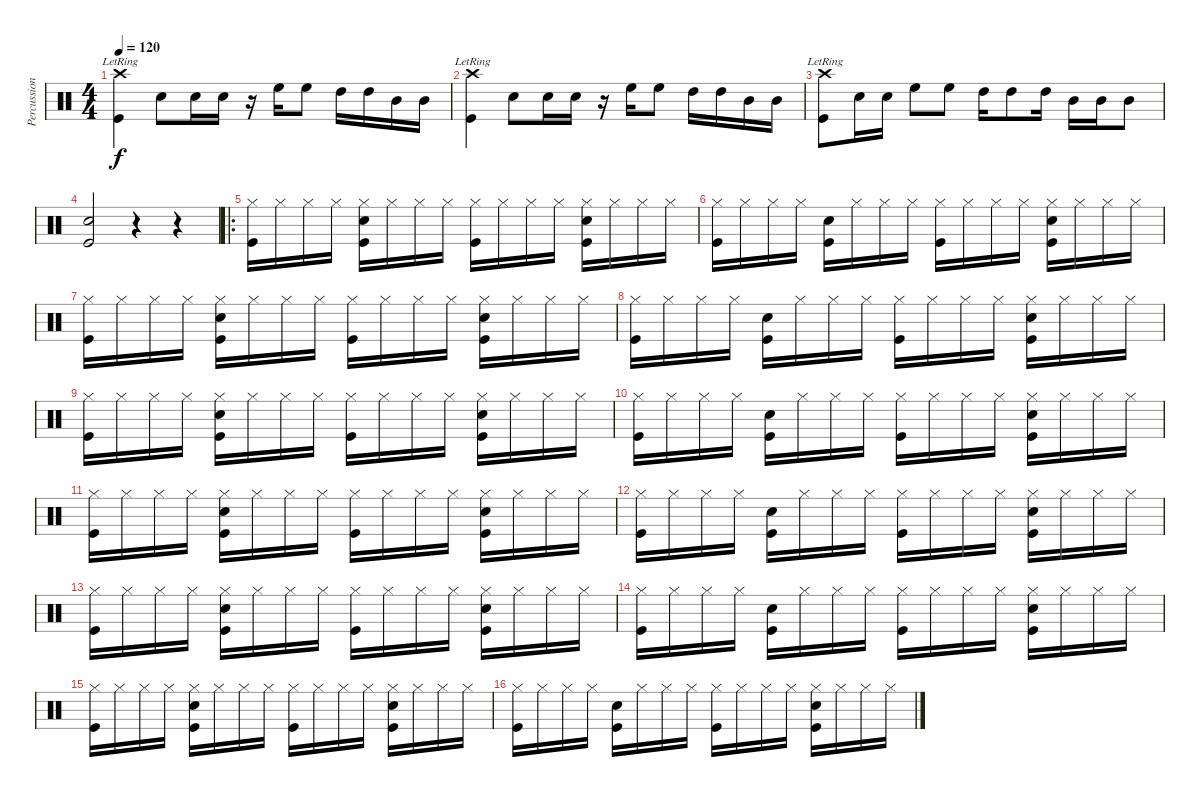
\track ("Percussion" "Percussion") {instrument percussion}
\staff {score}
\articulation defaults
\ts (4 4)
\tempo 120
\clef neutral
\ks c
("Crash high (hit)"{lr} "Kick (hit)").4{dy f} "Snare (hit) 2".8 "Snare (hit) 2".16 "Snare (hit) 2".16 r.16 "High Floor Tom (hit)".16 "High Floor Tom (hit)".8 "High Tom (hit)".16 "High Tom (hit)".16 "Mid Tom (hit)".16 "Mid Tom (hit)".16 |
("Crash high (hit)"{lr} "Kick (hit)").4 "Snare (hit) 2".8 "Snare (hit) 2".16 "Snare (hit) 2".16 r.16 "High Floor Tom (hit)".16 "High Floor Tom (hit)".8 "High Tom (hit)".16 "High Tom (hit)".16 "Mid Tom (hit)".16 "Mid Tom (hit)".16 |
("Crash high (hit)"{lr} "Kick (hit)").8 "Snare (hit) 2".16 "Snare (hit) 2".16 "High Floor Tom (hit)".8 "High Floor Tom (hit)".8 "High Tom (hit)".16 "High Tom (hit)".8 "High Tom (hit)".16 "Mid Tom (hit)".16 "Mid Tom (hit)".16 "Mid Tom (hit)".8 |
("Snare (hit) 2" "Kick (hit)").2 r.4 r.4 |
\ro
("Hi-Hat (closed)" "Kick (hit)").16 "Hi-Hat (closed)".16 "Hi-Hat (closed)".16 "Hi-Hat (closed)".16 ("Hi-Hat (closed)" "Snare (hit) 2" "Kick (hit)").16 "Hi-Hat (closed)".16 "Hi-Hat (closed)".16 "Hi-Hat (closed)".16 ("Hi-Hat (closed)" "Kick (hit)").16 "Hi-Hat (closed)".16 "Hi-Hat (closed)".16 "Hi-Hat (closed)".16 ("Hi-Hat (closed)" "Snare (hit) 2" "Kick (hit)").16 "Hi-Hat (closed)".16 "Hi-Hat (closed)".16 "Hi-Hat (closed)".16 |
("Hi-Hat (closed)" "Kick (hit)").16 "Hi-Hat (closed)".16 "Hi-Hat (closed)".16 "Hi-Hat (closed)".16 ("Snare (hit) 2" "Kick (hit)").16 "Hi-Hat (closed)".16 "Hi-Hat (closed)".16 "Hi-Hat (closed)".16 ("Hi-Hat (closed)" "Kick (hit)").16 "Hi-Hat (closed)".16 "Hi-Hat (closed)".16 "Hi-Hat (closed)".16 ("Hi-Hat (closed)" "Snare (hit) 2" "Kick (hit)").16 "Hi-Hat (closed)".16 "Hi-Hat (closed)".16 "Hi-Hat (closed)".16 |
("Hi-Hat (closed)" "Kick (hit)").16 "Hi-Hat (closed)".16 "Hi-Hat (closed)".16 "Hi-Hat (closed)".16 ("Hi-Hat (closed)" "Snare (hit) 2" "Kick (hit)").16 "Hi-Hat (closed)".16 "Hi-Hat (closed)".16 "Hi-Hat (closed)".16 ("Hi-Hat (closed)" "Kick (hit)").16 "Hi-Hat (closed)".16 "Hi-Hat (closed)".16 "Hi-Hat (closed)".16 ("Hi-Hat (closed)" "Snare (hit) 2" "Kick (hit)").16 "Hi-Hat (closed)".16 "Hi-Hat (closed)".16 "Hi-Hat (closed)".16 |
("Hi-Hat (closed)" "Kick (hit)").16 "Hi-Hat (closed)".16 "Hi-Hat (closed)".16 "Hi-Hat (closed)".16 ("Snare (hit) 2" "Kick (hit)").16 "Hi-Hat (closed)".16 "Hi-Hat (closed)".16 "Hi-Hat (closed)".16 ("Hi-Hat (closed)" "Kick (hit)").16 "Hi-Hat (closed)".16 "Hi-Hat (closed)".16 "Hi-Hat (closed)".16 ("Hi-Hat (closed)" "Snare (hit) 2" "Kick (hit)").16 "Hi-Hat (closed)".16 "Hi-Hat (closed)".16 "Hi-Hat (closed)".16 |
("Hi-Hat (closed)" "Kick (hit)").16 "Hi-Hat (closed)".16 "Hi-Hat (closed)".16 "Hi-Hat (closed)".16 ("Hi-Hat (closed)" "Snare (hit) 2" "Kick (hit)").16 "Hi-Hat (closed)".16 "Hi-Hat (closed)".16 "Hi-Hat (closed)".16 ("Hi-Hat (closed)" "Kick (hit)").16 "Hi-Hat (closed)".16 "Hi-Hat (closed)".16 "Hi-Hat (closed)".16 ("Hi-Hat (closed)" "Snare (hit) 2" "Kick (hit)").16 "Hi-Hat (closed)".16 "Hi-Hat (closed)".16 "Hi-Hat (closed)".16 |
("Hi-Hat (closed)" "Kick (hit)").16 "Hi-Hat (closed)".16 "Hi-Hat (closed)".16 "Hi-Hat (closed)".16 ("Snare (hit) 2" "Kick (hit)").16 "Hi-Hat (closed)".16 "Hi-Hat (closed)".16 "Hi-Hat (closed)".16 ("Hi-Hat (closed)" "Kick (hit)").16 "Hi-Hat (closed)".16 "Hi-Hat (closed)".16 "Hi-Hat (closed)".16 ("Hi-Hat (closed)" "Snare (hit) 2" "Kick (hit)").16 "Hi-Hat (closed)".16 "Hi-Hat (closed)".16 "Hi-Hat (closed)".16 |
("Hi-Hat (closed)" "Kick (hit)").16 "Hi-Hat (closed)".16 "Hi-Hat (closed)".16 "Hi-Hat (closed)".16 ("Hi-Hat (closed)" "Snare (hit) 2" "Kick (hit)").16 "Hi-Hat (closed)".16 "Hi-Hat (closed)".16 "Hi-Hat (closed)".16 ("Hi-Hat (closed)" "Kick (hit)").16 "Hi-Hat (closed)".16 "Hi-Hat (closed)".16 "Hi-Hat (closed)".16 ("Hi-Hat (closed)" "Snare (hit) 2" "Kick (hit)").16 "Hi-Hat (closed)".16 "Hi-Hat (closed)".16 "Hi-Hat (closed)".16 |
("Hi-Hat (closed)" "Kick (hit)").16 "Hi-Hat (closed)".16 "Hi-Hat (closed)".16 "Hi-Hat (closed)".16 ("Snare (hit) 2" "Kick (hit)").16 "Hi-Hat (closed)".16 "Hi-Hat (closed)".16 "Hi-Hat (closed)".16 ("Hi-Hat (closed)" "Kick (hit)").16 "Hi-Hat (closed)".16 "Hi-Hat (closed)".16 "Hi-Hat (closed)".16 ("Hi-Hat (closed)" "Snare (hit) 2" "Kick (hit)").16 "Hi-Hat (closed)".16 "Hi-Hat (closed)".16 "Hi-Hat (closed)".16 |
("Hi-Hat (closed)" "Kick (hit)").16 "Hi-Hat (closed)".16 "Hi-Hat (closed)".16 "Hi-Hat (closed)".16 ("Hi-Hat (closed)" "Snare (hit) 2" "Kick (hit)").16 "Hi-Hat (closed)".16 "Hi-Hat (closed)".16 "Hi-Hat (closed)".16 ("Hi-Hat (closed)" "Kick (hit)").16 "Hi-Hat (closed)".16 "Hi-Hat (closed)".16 "Hi-Hat (closed)".16 ("Hi-Hat (closed)" "Snare (hit) 2" "Kick (hit)").16 "Hi-Hat (closed)".16 "Hi-Hat (closed)".16 "Hi-Hat (closed)".16 |
("Hi-Hat (closed)" "Kick (hit)").16 "Hi-Hat (closed)".16 "Hi-Hat (closed)".16 "Hi-Hat (closed)".16 ("Snare (hit) 2" "Kick (hit)").16 "Hi-Hat (closed)".16 "Hi-Hat (closed)".16 "Hi-Hat (closed)".16 ("Hi-Hat (closed)" "Kick (hit)").16 "Hi-Hat (closed)".16 "Hi-Hat (closed)".16 "Hi-Hat (closed)".16 ("Hi-Hat (closed)" "Snare (hit) 2" "Kick (hit)").16 "Hi-Hat (closed)".16 "Hi-Hat (closed)".16 "Hi-Hat (closed)".16 |
("Hi-Hat (closed)" "Kick (hit)").16 "Hi-Hat (closed)".16 "Hi-Hat (closed)".16 "Hi-Hat (closed)".16 ("Hi-Hat (closed)" "Snare (hit) 2" "Kick (hit)").16 "Hi-Hat (closed)".16 "Hi-Hat (closed)".16 "Hi-Hat (closed)".16 ("Hi-Hat (closed)" "Kick (hit)").16 "Hi-Hat (closed)".16 "Hi-Hat (closed)".16 "Hi-Hat (closed)".16 ("Hi-Hat (closed)" "Snare (hit) 2" "Kick (hit)").16 "Hi-Hat (closed)".16 "Hi-Hat (closed)".16 "Hi-Hat (closed)".16 |
("Hi-Hat (closed)" "Kick (hit)").16 "Hi-Hat (closed)".16 "Hi-Hat (closed)".16 "Hi-Hat (closed)".16 ("Snare (hit) 2" "Kick (hit)").16 "Hi-Hat (closed)".16 "Hi-Hat (closed)".16 "Hi-Hat (closed)".16 ("Hi-Hat (closed)" "Kick (hit)").16 "Hi-Hat (closed)".16 "Hi-Hat (closed)".16 "Hi-Hat (closed)".16 ("Hi-Hat (closed)" "Snare (hit) 2" "Kick (hit)").16 "Hi-Hat (closed)".16 "Hi-Hat (closed)".16 "Hi-Hat (closed)".16
